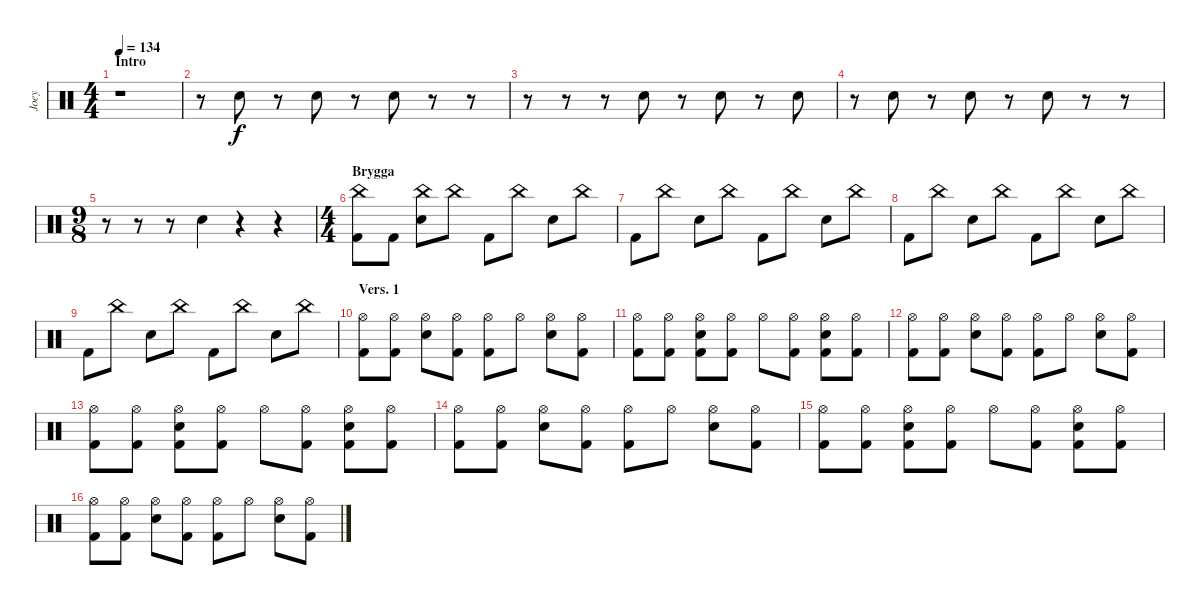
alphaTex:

\track ("Joey" "Joey") {instrument percussion}
\staff {score}
\articulation defaults
\ts (4 4)
\section ("" "Intro")
\tempo 134
\clef neutral
\ks c
r.1{dy f} |
r.8 "Electric Snare (hit)".8 r.8 "Electric Snare (hit)".8 r.8 "Electric Snare (hit)".8 r.8 r.8 |
r.8 r.8 r.8 "Electric Snare (hit)".8 r.8 "Electric Snare (hit)".8 r.8 "Electric Snare (hit)".8 |
r.8 "Electric Snare (hit)".8 r.8 "Electric Snare (hit)".8 r.8 "Electric Snare (hit)".8 r.8 r.8 |
\ts (9 8)
r.8 r.8 r.8 "Electric Snare (hit)".4 r.4 r.4 |
\ts (4 4)
\section ("" "Brygga")
("China (hit)" "Kick (hit) 2").8 "Kick (hit) 2".8 ("China (hit)" "Electric Snare (hit)").8 "China (hit)".8 "Kick (hit) 2".8 "China (hit)".8 "Electric Snare (hit)".8 "China (hit)".8 |
"Kick (hit) 2".8 "China (hit)".8 "Electric Snare (hit)".8 "China (hit)".8 "Kick (hit) 2".8 "China (hit)".8 "Electric Snare (hit)".8 "China (hit)".8 |
"Kick (hit) 2".8 "China (hit)".8 "Electric Snare (hit)".8 "China (hit)".8 "Kick (hit) 2".8 "China (hit)".8 "Electric Snare (hit)".8 "China (hit)".8 |
"Kick (hit) 2".8 "China (hit)".8 "Electric Snare (hit)".8 "China (hit)".8 "Kick (hit) 2".8 "China (hit)".8 "Electric Snare (hit)".8 "China (hit)".8 |
\section ("" "Vers. 1")
("Hi-Hat (open)" "Kick (hit) 2").8 ("Hi-Hat (open)" "Kick (hit) 2").8 ("Hi-Hat (open)" "Electric Snare (hit)").8 ("Hi-Hat (open)" "Kick (hit) 2").8 ("Hi-Hat (open)" "Kick (hit) 2").8 "Hi-Hat (open)".8 ("Hi-Hat (open)" "Electric Snare (hit)").8 ("Hi-Hat (open)" "Kick (hit) 2").8 |
("Hi-Hat (open)" "Kick (hit) 2").8 ("Hi-Hat (open)" "Kick (hit) 2").8 ("Hi-Hat (open)" "Electric Snare (hit)" "Kick (hit) 2").8 ("Hi-Hat (open)" "Kick (hit) 2").8 "Hi-Hat (open)".8 ("Hi-Hat (open)" "Kick (hit) 2").8 ("Hi-Hat (open)" "Electric Snare (hit)" "Kick (hit) 2").8 ("Hi-Hat (open)" "Kick (hit) 2").8 |
("Hi-Hat (open)" "Kick (hit) 2").8 ("Hi-Hat (open)" "Kick (hit) 2").8 ("Hi-Hat (open)" "Electric Snare (hit)").8 ("Hi-Hat (open)" "Kick (hit) 2").8 ("Hi-Hat (open)" "Kick (hit) 2").8 "Hi-Hat (open)".8 ("Hi-Hat (open)" "Electric Snare (hit)").8 ("Hi-Hat (open)" "Kick (hit) 2").8 |
("Hi-Hat (open)" "Kick (hit) 2").8 ("Hi-Hat (open)" "Kick (hit) 2").8 ("Hi-Hat (open)" "Electric Snare (hit)" "Kick (hit) 2").8 ("Hi-Hat (open)" "Kick (hit) 2").8 "Hi-Hat (open)".8 ("Hi-Hat (open)" "Kick (hit) 2").8 ("Hi-Hat (open)" "Electric Snare (hit)" "Kick (hit) 2").8 ("Hi-Hat (open)" "Kick (hit) 2").8 |
("Hi-Hat (open)" "Kick (hit) 2").8 ("Hi-Hat (open)" "Kick (hit) 2").8 ("Hi-Hat (open)" "Electric Snare (hit)").8 ("Hi-Hat (open)" "Kick (hit) 2").8 ("Hi-Hat (open)" "Kick (hit) 2").8 "Hi-Hat (open)".8 ("Hi-Hat (open)" "Electric Snare (hit)").8 ("Hi-Hat (open)" "Kick (hit) 2").8 |
("Hi-Hat (open)" "Kick (hit) 2").8 ("Hi-Hat (open)" "Kick (hit) 2").8 ("Hi-Hat (open)" "Electric Snare (hit)" "Kick (hit) 2").8 ("Hi-Hat (open)" "Kick (hit) 2").8 "Hi-Hat (open)".8 ("Hi-Hat (open)" "Kick (hit) 2").8 ("Hi-Hat (open)" "Electric Snare (hit)" "Kick (hit) 2").8 ("Hi-Hat (open)" "Kick (hit) 2").8 |
("Hi-Hat (open)" "Kick (hit) 2").8 ("Hi-Hat (open)" "Kick (hit) 2").8 ("Hi-Hat (open)" "Electric Snare (hit)").8 ("Hi-Hat (open)" "Kick (hit) 2").8 ("Hi-Hat (open)" "Kick (hit) 2").8 "Hi-Hat (open)".8 ("Hi-Hat (open)" "Electric Snare (hit)").8 ("Hi-Hat (open)" "Kick (hit) 2").8
